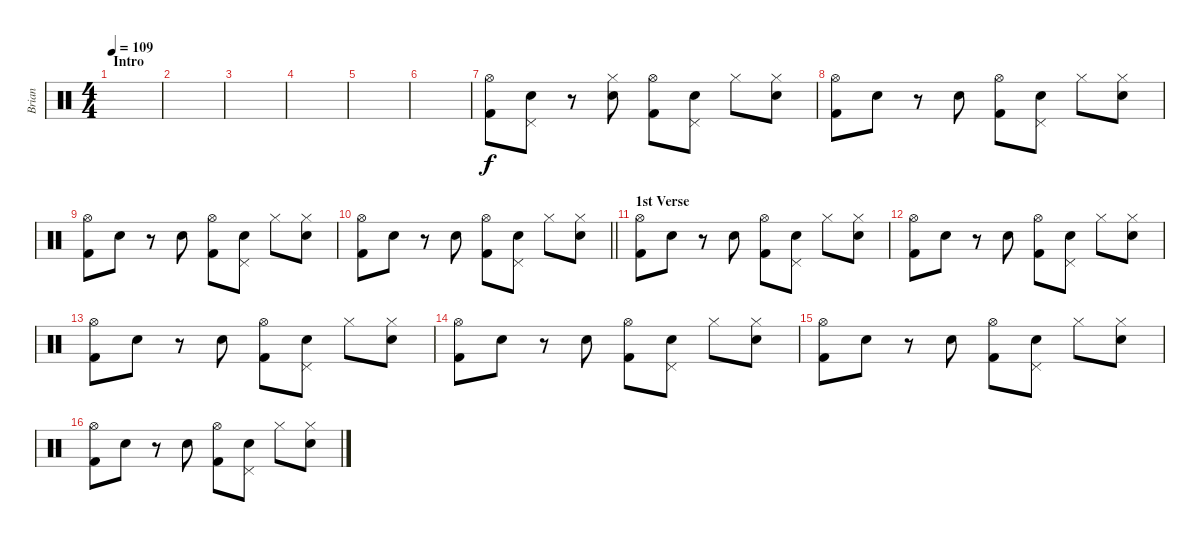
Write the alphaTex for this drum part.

\track ("Brian" "Brian") {instrument percussion}
\staff {score}
\articulation defaults
\ts (4 4)
\section ("" "Intro")
\tempo 109
\clef neutral
\ks c
|
|
|
|
|
|
("Hi-Hat (open)" "Kick (hit) 2").8 ("Pedal Hi-Hat (hit)" "Electric Snare (hit)").8 r.8 ("Hi-Hat (closed)" "Electric Snare (hit)").8 ("Hi-Hat (open)" "Kick (hit) 2").8 ("Pedal Hi-Hat (hit)" "Electric Snare (hit)").8 "Hi-Hat (closed)".8 ("Hi-Hat (closed)" "Electric Snare (hit)").8 |
("Hi-Hat (open)" "Kick (hit) 2").8 "Electric Snare (hit)".8 r.8 "Electric Snare (hit)".8 ("Hi-Hat (open)" "Kick (hit) 2").8 ("Pedal Hi-Hat (hit)" "Electric Snare (hit)").8 "Hi-Hat (closed)".8 ("Hi-Hat (closed)" "Electric Snare (hit)").8 |
("Hi-Hat (open)" "Kick (hit) 2").8 "Electric Snare (hit)".8 r.8 "Electric Snare (hit)".8 ("Hi-Hat (open)" "Kick (hit) 2").8 ("Pedal Hi-Hat (hit)" "Electric Snare (hit)").8 "Hi-Hat (closed)".8 ("Hi-Hat (closed)" "Electric Snare (hit)").8 |
\barLineRight lightlight
("Hi-Hat (open)" "Kick (hit) 2").8 "Electric Snare (hit)".8 r.8 "Electric Snare (hit)".8 ("Hi-Hat (open)" "Kick (hit) 2").8 ("Pedal Hi-Hat (hit)" "Electric Snare (hit)").8 "Hi-Hat (closed)".8 ("Hi-Hat (closed)" "Electric Snare (hit)").8 |
\section ("" "1st Verse")
("Hi-Hat (open)" "Kick (hit) 2").8 "Electric Snare (hit)".8 r.8 "Electric Snare (hit)".8 ("Hi-Hat (open)" "Kick (hit) 2").8 ("Pedal Hi-Hat (hit)" "Electric Snare (hit)").8 "Hi-Hat (closed)".8 ("Hi-Hat (closed)" "Electric Snare (hit)").8 |
("Hi-Hat (open)" "Kick (hit) 2").8 "Electric Snare (hit)".8 r.8 "Electric Snare (hit)".8 ("Hi-Hat (open)" "Kick (hit) 2").8 ("Pedal Hi-Hat (hit)" "Electric Snare (hit)").8 "Hi-Hat (closed)".8 ("Hi-Hat (closed)" "Electric Snare (hit)").8 |
("Hi-Hat (open)" "Kick (hit) 2").8 "Electric Snare (hit)".8 r.8 "Electric Snare (hit)".8 ("Hi-Hat (open)" "Kick (hit) 2").8 ("Pedal Hi-Hat (hit)" "Electric Snare (hit)").8 "Hi-Hat (closed)".8 ("Hi-Hat (closed)" "Electric Snare (hit)").8 |
("Hi-Hat (open)" "Kick (hit) 2").8 "Electric Snare (hit)".8 r.8 "Electric Snare (hit)".8 ("Hi-Hat (open)" "Kick (hit) 2").8 ("Pedal Hi-Hat (hit)" "Electric Snare (hit)").8 "Hi-Hat (closed)".8 ("Hi-Hat (closed)" "Electric Snare (hit)").8 |
("Hi-Hat (open)" "Kick (hit) 2").8 "Electric Snare (hit)".8 r.8 "Electric Snare (hit)".8 ("Hi-Hat (open)" "Kick (hit) 2").8 ("Pedal Hi-Hat (hit)" "Electric Snare (hit)").8 "Hi-Hat (closed)".8 ("Hi-Hat (closed)" "Electric Snare (hit)").8 |
("Hi-Hat (open)" "Kick (hit) 2").8 "Electric Snare (hit)".8 r.8 "Electric Snare (hit)".8 ("Hi-Hat (open)" "Kick (hit) 2").8 ("Pedal Hi-Hat (hit)" "Electric Snare (hit)").8 "Hi-Hat (closed)".8 ("Hi-Hat (closed)" "Electric Snare (hit)").8
